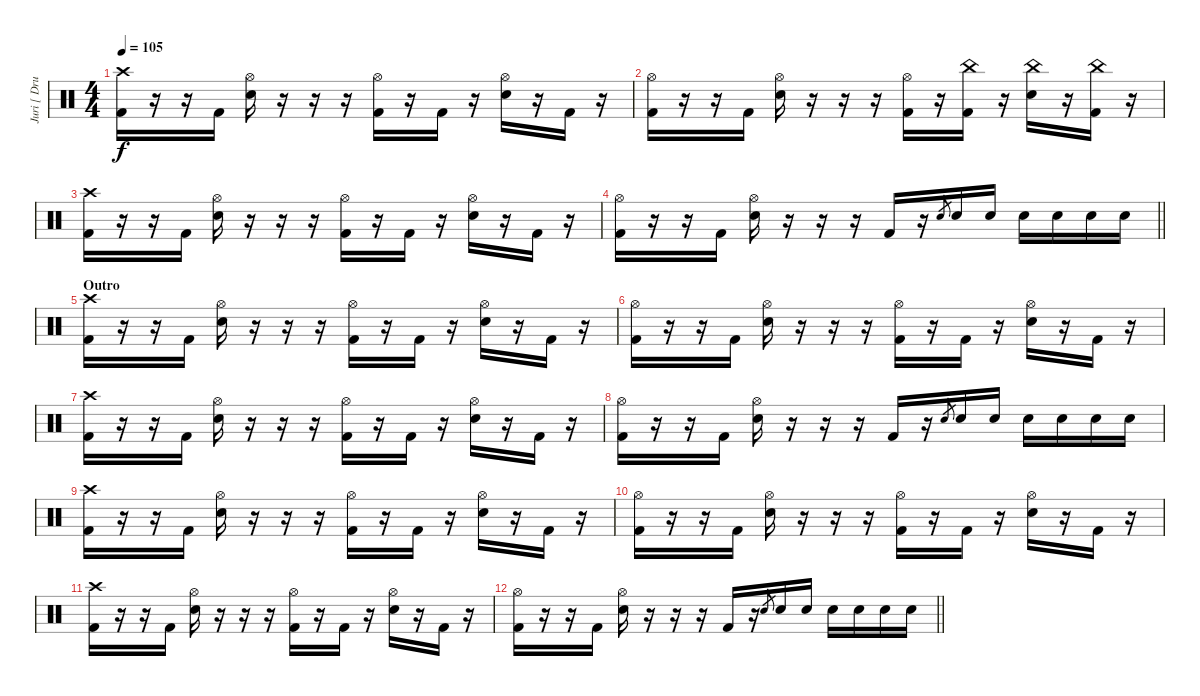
\track ("Juri [ Drums]" "Juri [ Dru") {instrument percussion}
\staff {score}
\articulation defaults
\ts (4 4)
\tempo 105
\clef neutral
\ks c
("Crash high (hit)" "Kick (hit) 2").16{dy f} r.16 r.16 "Kick (hit) 2".16 ("Hi-Hat (open)" "Electric Snare (hit)").16 r.16 r.16 r.16 ("Hi-Hat (open)" "Kick (hit) 2").16 r.16 "Kick (hit) 2".16 r.16 ("Hi-Hat (open)" "Electric Snare (hit)").16 r.16 "Kick (hit) 2".16 r.16 |
("Hi-Hat (open)" "Kick (hit) 2").16 r.16 r.16 "Kick (hit) 2".16 ("Hi-Hat (open)" "Electric Snare (hit)").16 r.16 r.16 r.16 ("Hi-Hat (open)" "Kick (hit) 2").16 r.16 ("China (hit)" "Kick (hit) 2").16 r.16 ("China (hit)" "Electric Snare (hit)").16 r.16 ("China (hit)" "Kick (hit) 2").16 r.16 |
("Crash high (hit)" "Kick (hit) 2").16 r.16 r.16 "Kick (hit) 2".16 ("Hi-Hat (open)" "Electric Snare (hit)").16 r.16 r.16 r.16 ("Hi-Hat (open)" "Kick (hit) 2").16 r.16 "Kick (hit) 2".16 r.16 ("Hi-Hat (open)" "Electric Snare (hit)").16 r.16 "Kick (hit) 2".16 r.16 |
\barLineRight lightlight
("Hi-Hat (open)" "Kick (hit) 2").16 r.16 r.16 "Kick (hit) 2".16 ("Hi-Hat (open)" "Electric Snare (hit)").16 r.16 r.16 r.16 "Kick (hit) 2".16 r.16 "Electric Snare (hit)".8{gr} "Electric Snare (hit)".16 "Electric Snare (hit)".16 "Electric Snare (hit)".16 "Electric Snare (hit)".16 "Electric Snare (hit)".16 "Electric Snare (hit)".16 |
\section ("" "Outro")
("Crash high (hit)" "Kick (hit) 2").16 r.16 r.16 "Kick (hit) 2".16 ("Hi-Hat (open)" "Electric Snare (hit)").16 r.16 r.16 r.16 ("Hi-Hat (open)" "Kick (hit) 2").16 r.16 "Kick (hit) 2".16 r.16 ("Hi-Hat (open)" "Electric Snare (hit)").16 r.16 "Kick (hit) 2".16 r.16 |
("Hi-Hat (open)" "Kick (hit) 2").16 r.16 r.16 "Kick (hit) 2".16 ("Hi-Hat (open)" "Electric Snare (hit)").16 r.16 r.16 r.16 ("Hi-Hat (open)" "Kick (hit) 2").16 r.16 "Kick (hit) 2".16 r.16 ("Hi-Hat (open)" "Electric Snare (hit)").16 r.16 "Kick (hit) 2".16 r.16 |
("Crash high (hit)" "Kick (hit) 2").16 r.16 r.16 "Kick (hit) 2".16 ("Hi-Hat (open)" "Electric Snare (hit)").16 r.16 r.16 r.16 ("Hi-Hat (open)" "Kick (hit) 2").16 r.16 "Kick (hit) 2".16 r.16 ("Hi-Hat (open)" "Electric Snare (hit)").16 r.16 "Kick (hit) 2".16 r.16 |
("Hi-Hat (open)" "Kick (hit) 2").16 r.16 r.16 "Kick (hit) 2".16 ("Hi-Hat (open)" "Electric Snare (hit)").16 r.16 r.16 r.16 "Kick (hit) 2".16 r.16 "Electric Snare (hit)".8{gr} "Electric Snare (hit)".16 "Electric Snare (hit)".16 "Electric Snare (hit)".16 "Electric Snare (hit)".16 "Electric Snare (hit)".16 "Electric Snare (hit)".16 |
("Crash high (hit)" "Kick (hit) 2").16 r.16 r.16 "Kick (hit) 2".16 ("Hi-Hat (open)" "Electric Snare (hit)").16 r.16 r.16 r.16 ("Hi-Hat (open)" "Kick (hit) 2").16 r.16 "Kick (hit) 2".16 r.16 ("Hi-Hat (open)" "Electric Snare (hit)").16 r.16 "Kick (hit) 2".16 r.16 |
("Hi-Hat (open)" "Kick (hit) 2").16 r.16 r.16 "Kick (hit) 2".16 ("Hi-Hat (open)" "Electric Snare (hit)").16 r.16 r.16 r.16 ("Hi-Hat (open)" "Kick (hit) 2").16 r.16 "Kick (hit) 2".16 r.16 ("Hi-Hat (open)" "Electric Snare (hit)").16 r.16 "Kick (hit) 2".16 r.16 |
("Crash high (hit)" "Kick (hit) 2").16 r.16 r.16 "Kick (hit) 2".16 ("Hi-Hat (open)" "Electric Snare (hit)").16 r.16 r.16 r.16 ("Hi-Hat (open)" "Kick (hit) 2").16 r.16 "Kick (hit) 2".16 r.16 ("Hi-Hat (open)" "Electric Snare (hit)").16 r.16 "Kick (hit) 2".16 r.16 |
\barLineRight lightlight
("Hi-Hat (open)" "Kick (hit) 2").16 r.16 r.16 "Kick (hit) 2".16 ("Hi-Hat (open)" "Electric Snare (hit)").16 r.16 r.16 r.16 "Kick (hit) 2".16 r.16 "Electric Snare (hit)".8{gr} "Electric Snare (hit)".16 "Electric Snare (hit)".16 "Electric Snare (hit)".16 "Electric Snare (hit)".16 "Electric Snare (hit)".16 "Electric Snare (hit)".16
